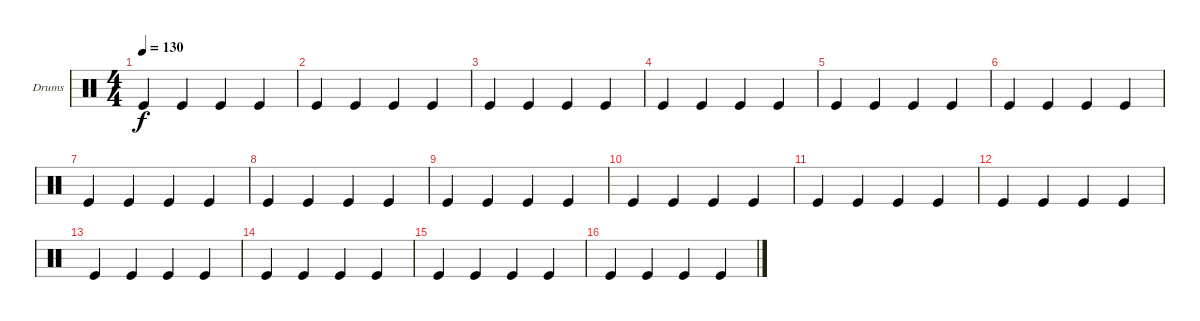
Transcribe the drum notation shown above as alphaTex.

\bracketExtendMode groupsimilarinstruments
\firstSystemTrackNameOrientation horizontal
\otherSystemsTrackNameOrientation horizontal
\track ("Drumkit" "Drums") {instrument percussion}
\staff {score}
\articulation defaults
\ts (4 4)
\tempo 130
\clef neutral
\ks c "Kick (hit)".4{dy f} "Kick (hit)".4 "Kick (hit)".4 "Kick (hit)".4
|
"Kick (hit)".4 "Kick (hit)".4 "Kick (hit)".4 "Kick (hit)".4 |
"Kick (hit)".4 "Kick (hit)".4 "Kick (hit)".4 "Kick (hit)".4 |
"Kick (hit)".4 "Kick (hit)".4 "Kick (hit)".4 "Kick (hit)".4 |
"Kick (hit)".4 "Kick (hit)".4 "Kick (hit)".4 "Kick (hit)".4 |
"Kick (hit)".4 "Kick (hit)".4 "Kick (hit)".4 "Kick (hit)".4 |
"Kick (hit)".4 "Kick (hit)".4 "Kick (hit)".4 "Kick (hit)".4 |
"Kick (hit)".4 "Kick (hit)".4 "Kick (hit)".4 "Kick (hit)".4 |
"Kick (hit)".4 "Kick (hit)".4 "Kick (hit)".4 "Kick (hit)".4 |
"Kick (hit)".4 "Kick (hit)".4 "Kick (hit)".4 "Kick (hit)".4 |
"Kick (hit)".4 "Kick (hit)".4 "Kick (hit)".4 "Kick (hit)".4 |
"Kick (hit)".4 "Kick (hit)".4 "Kick (hit)".4 "Kick (hit)".4 |
"Kick (hit)".4 "Kick (hit)".4 "Kick (hit)".4 "Kick (hit)".4 |
"Kick (hit)".4 "Kick (hit)".4 "Kick (hit)".4 "Kick (hit)".4 |
"Kick (hit)".4 "Kick (hit)".4 "Kick (hit)".4 "Kick (hit)".4 |
"Kick (hit)".4 "Kick (hit)".4 "Kick (hit)".4 "Kick (hit)".4
